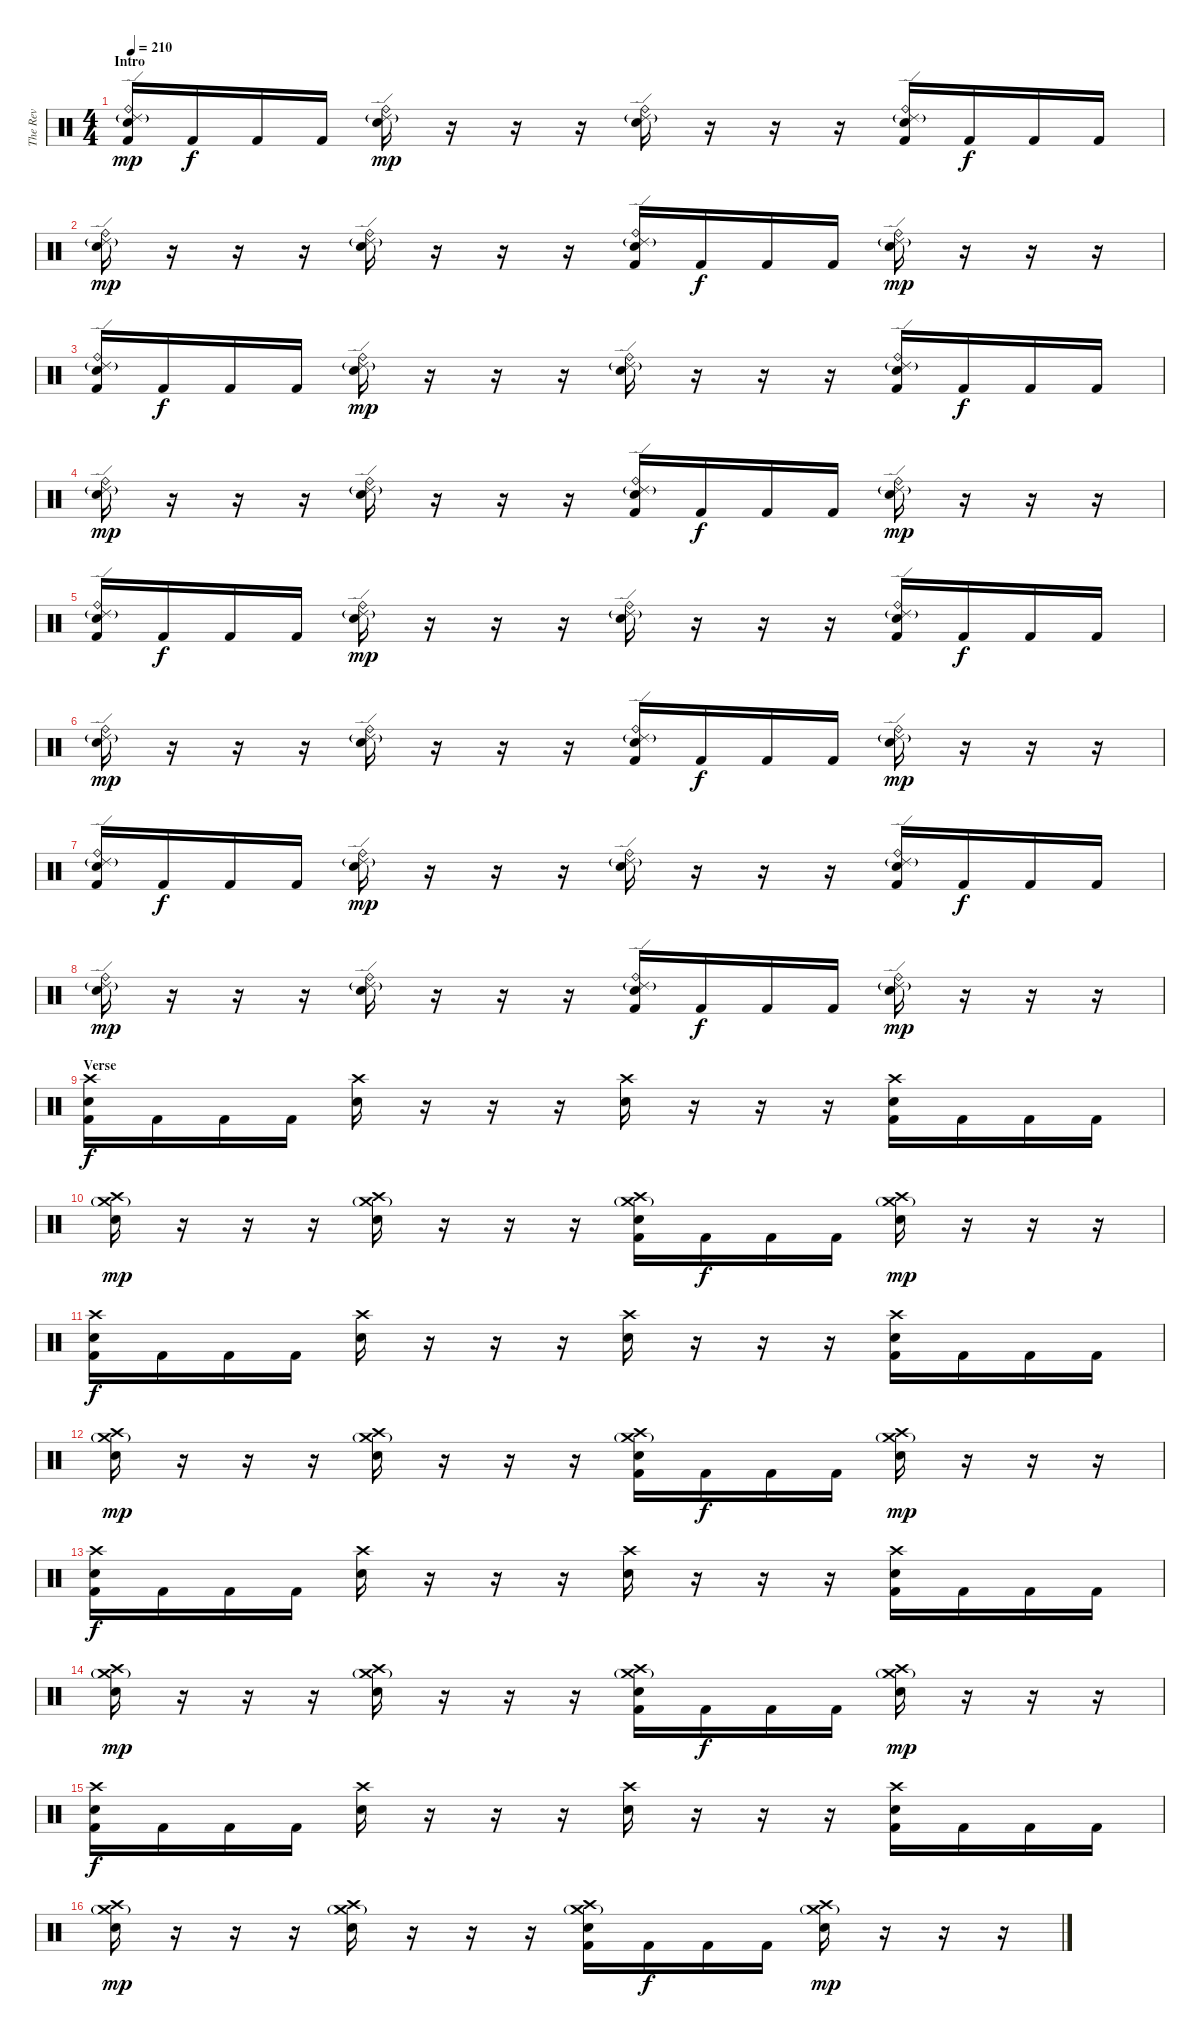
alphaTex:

\track ("The Rev" "The Rev") {instrument percussion}
\staff {score}
\articulation defaults
\ts (4 4)
\section ("" "Intro")
\tempo 210
\clef neutral
\ks c
("Ride (edge) 2"{g} "Ride (bell)" "Electric Snare (hit)" "Kick (hit) 2").16{dy mp} "Kick (hit) 2".16{dy f} "Kick (hit) 2".16 "Kick (hit) 2".16 ("Ride (edge) 2"{g} "Ride (bell)" "Electric Snare (hit)").16{dy mp} r.16 r.16 r.16 ("Ride (edge) 2"{g} "Ride (bell)" "Electric Snare (hit)").16 r.16 r.16 r.16 ("Ride (edge) 2"{g} "Ride (bell)" "Electric Snare (hit)" "Kick (hit) 2").16 "Kick (hit) 2".16{dy f} "Kick (hit) 2".16 "Kick (hit) 2".16 |
("Ride (edge) 2"{g} "Ride (bell)" "Electric Snare (hit)").16{dy mp} r.16 r.16 r.16 ("Ride (edge) 2"{g} "Ride (bell)" "Electric Snare (hit)").16 r.16 r.16 r.16 ("Ride (edge) 2"{g} "Ride (bell)" "Electric Snare (hit)" "Kick (hit) 2").16 "Kick (hit) 2".16{dy f} "Kick (hit) 2".16 "Kick (hit) 2".16 ("Ride (edge) 2"{g} "Ride (bell)" "Electric Snare (hit)").16{dy mp} r.16 r.16 r.16 |
("Ride (edge) 2"{g} "Ride (bell)" "Electric Snare (hit)" "Kick (hit) 2").16 "Kick (hit) 2".16{dy f} "Kick (hit) 2".16 "Kick (hit) 2".16 ("Ride (edge) 2"{g} "Ride (bell)" "Electric Snare (hit)").16{dy mp} r.16 r.16 r.16 ("Ride (edge) 2"{g} "Ride (bell)" "Electric Snare (hit)").16 r.16 r.16 r.16 ("Ride (edge) 2"{g} "Ride (bell)" "Electric Snare (hit)" "Kick (hit) 2").16 "Kick (hit) 2".16{dy f} "Kick (hit) 2".16 "Kick (hit) 2".16 |
("Ride (edge) 2"{g} "Ride (bell)" "Electric Snare (hit)").16{dy mp} r.16 r.16 r.16 ("Ride (edge) 2"{g} "Ride (bell)" "Electric Snare (hit)").16 r.16 r.16 r.16 ("Ride (edge) 2"{g} "Ride (bell)" "Electric Snare (hit)" "Kick (hit) 2").16 "Kick (hit) 2".16{dy f} "Kick (hit) 2".16 "Kick (hit) 2".16 ("Ride (edge) 2"{g} "Ride (bell)" "Electric Snare (hit)").16{dy mp} r.16 r.16 r.16 |
("Ride (edge) 2"{g} "Ride (bell)" "Electric Snare (hit)" "Kick (hit) 2").16 "Kick (hit) 2".16{dy f} "Kick (hit) 2".16 "Kick (hit) 2".16 ("Ride (edge) 2"{g} "Ride (bell)" "Electric Snare (hit)").16{dy mp} r.16 r.16 r.16 ("Ride (edge) 2"{g} "Ride (bell)" "Electric Snare (hit)").16 r.16 r.16 r.16 ("Ride (edge) 2"{g} "Ride (bell)" "Electric Snare (hit)" "Kick (hit) 2").16 "Kick (hit) 2".16{dy f} "Kick (hit) 2".16 "Kick (hit) 2".16 |
("Ride (edge) 2"{g} "Ride (bell)" "Electric Snare (hit)").16{dy mp} r.16 r.16 r.16 ("Ride (edge) 2"{g} "Ride (bell)" "Electric Snare (hit)").16 r.16 r.16 r.16 ("Ride (edge) 2"{g} "Ride (bell)" "Electric Snare (hit)" "Kick (hit) 2").16 "Kick (hit) 2".16{dy f} "Kick (hit) 2".16 "Kick (hit) 2".16 ("Ride (edge) 2"{g} "Ride (bell)" "Electric Snare (hit)").16{dy mp} r.16 r.16 r.16 |
("Ride (edge) 2"{g} "Ride (bell)" "Electric Snare (hit)" "Kick (hit) 2").16 "Kick (hit) 2".16{dy f} "Kick (hit) 2".16 "Kick (hit) 2".16 ("Ride (edge) 2"{g} "Ride (bell)" "Electric Snare (hit)").16{dy mp} r.16 r.16 r.16 ("Ride (edge) 2"{g} "Ride (bell)" "Electric Snare (hit)").16 r.16 r.16 r.16 ("Ride (edge) 2"{g} "Ride (bell)" "Electric Snare (hit)" "Kick (hit) 2").16 "Kick (hit) 2".16{dy f} "Kick (hit) 2".16 "Kick (hit) 2".16 |
("Ride (edge) 2"{g} "Ride (bell)" "Electric Snare (hit)").16{dy mp} r.16 r.16 r.16 ("Ride (edge) 2"{g} "Ride (bell)" "Electric Snare (hit)").16 r.16 r.16 r.16 ("Ride (edge) 2"{g} "Ride (bell)" "Electric Snare (hit)" "Kick (hit) 2").16 "Kick (hit) 2".16{dy f} "Kick (hit) 2".16 "Kick (hit) 2".16 ("Ride (edge) 2"{g} "Ride (bell)" "Electric Snare (hit)").16{dy mp} r.16 r.16 r.16 |
\section ("" "Verse")
("Crash high (hit)" "Electric Snare (hit)" "Kick (hit) 2").16{dy f} "Kick (hit) 2".16 "Kick (hit) 2".16 "Kick (hit) 2".16 ("Crash high (hit)" "Electric Snare (hit)").16 r.16 r.16 r.16 ("Crash high (hit)" "Electric Snare (hit)").16 r.16 r.16 r.16 ("Crash high (hit)" "Electric Snare (hit)" "Kick (hit) 2").16 "Kick (hit) 2".16 "Kick (hit) 2".16 "Kick (hit) 2".16 |
("Crash high (hit)" "Crash medium (hit)"{g} "Electric Snare (hit)").16{dy mp} r.16 r.16 r.16 ("Crash high (hit)" "Crash medium (hit)"{g} "Electric Snare (hit)").16 r.16 r.16 r.16 ("Crash high (hit)" "Crash medium (hit)"{g} "Electric Snare (hit)" "Kick (hit) 2").16 "Kick (hit) 2".16{dy f} "Kick (hit) 2".16 "Kick (hit) 2".16 ("Crash high (hit)" "Crash medium (hit)"{g} "Electric Snare (hit)").16{dy mp} r.16 r.16 r.16 |
("Crash high (hit)" "Electric Snare (hit)" "Kick (hit) 2").16{dy f} "Kick (hit) 2".16 "Kick (hit) 2".16 "Kick (hit) 2".16 ("Crash high (hit)" "Electric Snare (hit)").16 r.16 r.16 r.16 ("Crash high (hit)" "Electric Snare (hit)").16 r.16 r.16 r.16 ("Crash high (hit)" "Electric Snare (hit)" "Kick (hit) 2").16 "Kick (hit) 2".16 "Kick (hit) 2".16 "Kick (hit) 2".16 |
("Crash high (hit)" "Crash medium (hit)"{g} "Electric Snare (hit)").16{dy mp} r.16 r.16 r.16 ("Crash high (hit)" "Crash medium (hit)"{g} "Electric Snare (hit)").16 r.16 r.16 r.16 ("Crash high (hit)" "Crash medium (hit)"{g} "Electric Snare (hit)" "Kick (hit) 2").16 "Kick (hit) 2".16{dy f} "Kick (hit) 2".16 "Kick (hit) 2".16 ("Crash high (hit)" "Crash medium (hit)"{g} "Electric Snare (hit)").16{dy mp} r.16 r.16 r.16 |
("Crash high (hit)" "Electric Snare (hit)" "Kick (hit) 2").16{dy f} "Kick (hit) 2".16 "Kick (hit) 2".16 "Kick (hit) 2".16 ("Crash high (hit)" "Electric Snare (hit)").16 r.16 r.16 r.16 ("Crash high (hit)" "Electric Snare (hit)").16 r.16 r.16 r.16 ("Crash high (hit)" "Electric Snare (hit)" "Kick (hit) 2").16 "Kick (hit) 2".16 "Kick (hit) 2".16 "Kick (hit) 2".16 |
("Crash high (hit)" "Crash medium (hit)"{g} "Electric Snare (hit)").16{dy mp} r.16 r.16 r.16 ("Crash high (hit)" "Crash medium (hit)"{g} "Electric Snare (hit)").16 r.16 r.16 r.16 ("Crash high (hit)" "Crash medium (hit)"{g} "Electric Snare (hit)" "Kick (hit) 2").16 "Kick (hit) 2".16{dy f} "Kick (hit) 2".16 "Kick (hit) 2".16 ("Crash high (hit)" "Crash medium (hit)"{g} "Electric Snare (hit)").16{dy mp} r.16 r.16 r.16 |
("Crash high (hit)" "Electric Snare (hit)" "Kick (hit) 2").16{dy f} "Kick (hit) 2".16 "Kick (hit) 2".16 "Kick (hit) 2".16 ("Crash high (hit)" "Electric Snare (hit)").16 r.16 r.16 r.16 ("Crash high (hit)" "Electric Snare (hit)").16 r.16 r.16 r.16 ("Crash high (hit)" "Electric Snare (hit)" "Kick (hit) 2").16 "Kick (hit) 2".16 "Kick (hit) 2".16 "Kick (hit) 2".16 |
("Crash high (hit)" "Crash medium (hit)"{g} "Electric Snare (hit)").16{dy mp} r.16 r.16 r.16 ("Crash high (hit)" "Crash medium (hit)"{g} "Electric Snare (hit)").16 r.16 r.16 r.16 ("Crash high (hit)" "Crash medium (hit)"{g} "Electric Snare (hit)" "Kick (hit) 2").16 "Kick (hit) 2".16{dy f} "Kick (hit) 2".16 "Kick (hit) 2".16 ("Crash high (hit)" "Crash medium (hit)"{g} "Electric Snare (hit)").16{dy mp} r.16 r.16 r.16
